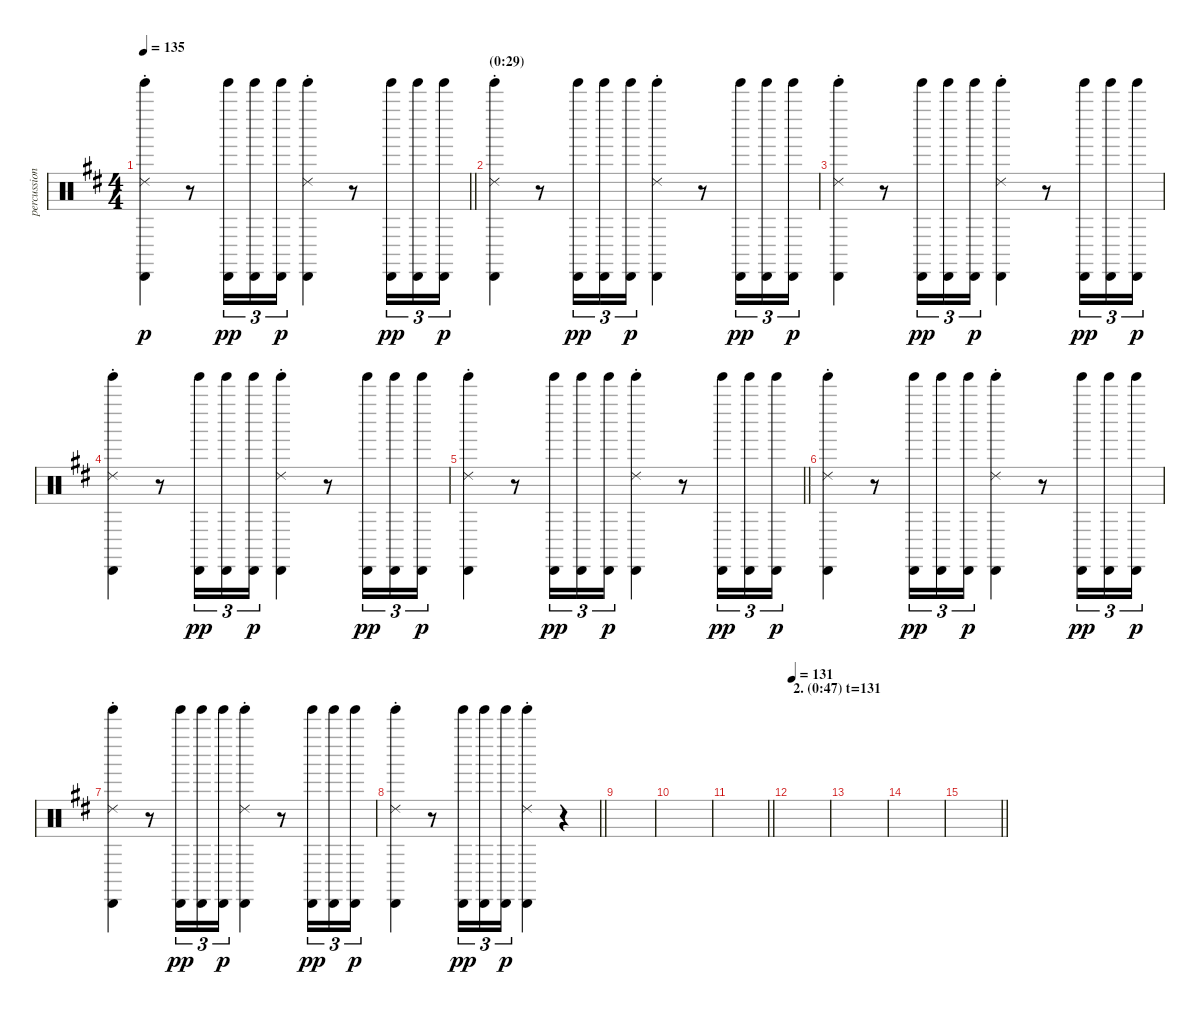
\track ("percussion" "percussion") {instrument percussion}
\staff {score}
\articulation defaults
\ts (4 4)
\tempo 135
\clef neutral
\barLineRight lightlight
\ks d
("Ride (choke) 2" "Cabasa (hit)" "Tinkle Bell (hit)").4{dy p} r.8 ("Cabasa (hit)" "Tinkle Bell (hit)").16{tu (3 2) dy pp} ("Cabasa (hit)" "Tinkle Bell (hit)").16{tu (3 2)} ("Cabasa (hit)" "Tinkle Bell (hit)").16{tu (3 2) dy p} ("Ride (choke) 2" "Cabasa (hit)" "Tinkle Bell (hit)").4 r.8 ("Cabasa (hit)" "Tinkle Bell (hit)").16{tu (3 2) dy pp} ("Cabasa (hit)" "Tinkle Bell (hit)").16{tu (3 2)} ("Cabasa (hit)" "Tinkle Bell (hit)").16{tu (3 2) dy p} |
\section ("" "(0:29)")
("Ride (choke) 2" "Cabasa (hit)" "Tinkle Bell (hit)").4 r.8 ("Cabasa (hit)" "Tinkle Bell (hit)").16{tu (3 2) dy pp} ("Cabasa (hit)" "Tinkle Bell (hit)").16{tu (3 2)} ("Cabasa (hit)" "Tinkle Bell (hit)").16{tu (3 2) dy p} ("Ride (choke) 2" "Cabasa (hit)" "Tinkle Bell (hit)").4 r.8 ("Cabasa (hit)" "Tinkle Bell (hit)").16{tu (3 2) dy pp} ("Cabasa (hit)" "Tinkle Bell (hit)").16{tu (3 2)} ("Cabasa (hit)" "Tinkle Bell (hit)").16{tu (3 2) dy p} |
("Ride (choke) 2" "Cabasa (hit)" "Tinkle Bell (hit)").4 r.8 ("Cabasa (hit)" "Tinkle Bell (hit)").16{tu (3 2) dy pp} ("Cabasa (hit)" "Tinkle Bell (hit)").16{tu (3 2)} ("Cabasa (hit)" "Tinkle Bell (hit)").16{tu (3 2) dy p} ("Ride (choke) 2" "Cabasa (hit)" "Tinkle Bell (hit)").4 r.8 ("Cabasa (hit)" "Tinkle Bell (hit)").16{tu (3 2) dy pp} ("Cabasa (hit)" "Tinkle Bell (hit)").16{tu (3 2)} ("Cabasa (hit)" "Tinkle Bell (hit)").16{tu (3 2) dy p} |
("Ride (choke) 2" "Cabasa (hit)" "Tinkle Bell (hit)").4 r.8 ("Cabasa (hit)" "Tinkle Bell (hit)").16{tu (3 2) dy pp} ("Cabasa (hit)" "Tinkle Bell (hit)").16{tu (3 2)} ("Cabasa (hit)" "Tinkle Bell (hit)").16{tu (3 2) dy p} ("Ride (choke) 2" "Cabasa (hit)" "Tinkle Bell (hit)").4 r.8 ("Cabasa (hit)" "Tinkle Bell (hit)").16{tu (3 2) dy pp} ("Cabasa (hit)" "Tinkle Bell (hit)").16{tu (3 2)} ("Cabasa (hit)" "Tinkle Bell (hit)").16{tu (3 2) dy p} |
\barLineRight lightlight
("Ride (choke) 2" "Cabasa (hit)" "Tinkle Bell (hit)").4 r.8 ("Cabasa (hit)" "Tinkle Bell (hit)").16{tu (3 2) dy pp} ("Cabasa (hit)" "Tinkle Bell (hit)").16{tu (3 2)} ("Cabasa (hit)" "Tinkle Bell (hit)").16{tu (3 2) dy p} ("Ride (choke) 2" "Cabasa (hit)" "Tinkle Bell (hit)").4 r.8 ("Cabasa (hit)" "Tinkle Bell (hit)").16{tu (3 2) dy pp} ("Cabasa (hit)" "Tinkle Bell (hit)").16{tu (3 2)} ("Cabasa (hit)" "Tinkle Bell (hit)").16{tu (3 2) dy p} |
("Ride (choke) 2" "Cabasa (hit)" "Tinkle Bell (hit)").4 r.8 ("Cabasa (hit)" "Tinkle Bell (hit)").16{tu (3 2) dy pp} ("Cabasa (hit)" "Tinkle Bell (hit)").16{tu (3 2)} ("Cabasa (hit)" "Tinkle Bell (hit)").16{tu (3 2) dy p} ("Ride (choke) 2" "Cabasa (hit)" "Tinkle Bell (hit)").4 r.8 ("Cabasa (hit)" "Tinkle Bell (hit)").16{tu (3 2) dy pp} ("Cabasa (hit)" "Tinkle Bell (hit)").16{tu (3 2)} ("Cabasa (hit)" "Tinkle Bell (hit)").16{tu (3 2) dy p} |
("Ride (choke) 2" "Cabasa (hit)" "Tinkle Bell (hit)").4 r.8 ("Cabasa (hit)" "Tinkle Bell (hit)").16{tu (3 2) dy pp} ("Cabasa (hit)" "Tinkle Bell (hit)").16{tu (3 2)} ("Cabasa (hit)" "Tinkle Bell (hit)").16{tu (3 2) dy p} ("Ride (choke) 2" "Cabasa (hit)" "Tinkle Bell (hit)").4 r.8 ("Cabasa (hit)" "Tinkle Bell (hit)").16{tu (3 2) dy pp} ("Cabasa (hit)" "Tinkle Bell (hit)").16{tu (3 2)} ("Cabasa (hit)" "Tinkle Bell (hit)").16{tu (3 2) dy p} |
\barLineRight lightlight
("Ride (choke) 2" "Cabasa (hit)" "Tinkle Bell (hit)").4 r.8 ("Cabasa (hit)" "Tinkle Bell (hit)").16{tu (3 2) dy pp} ("Cabasa (hit)" "Tinkle Bell (hit)").16{tu (3 2)} ("Cabasa (hit)" "Tinkle Bell (hit)").16{tu (3 2) dy p} ("Ride (choke) 2" "Cabasa (hit)" "Tinkle Bell (hit)").4 r.4 |
|
|
\barLineRight lightlight
|
\section ("" "2. (0:47) t=131")
\tempo 131
|
|
|
\barLineRight lightlight
